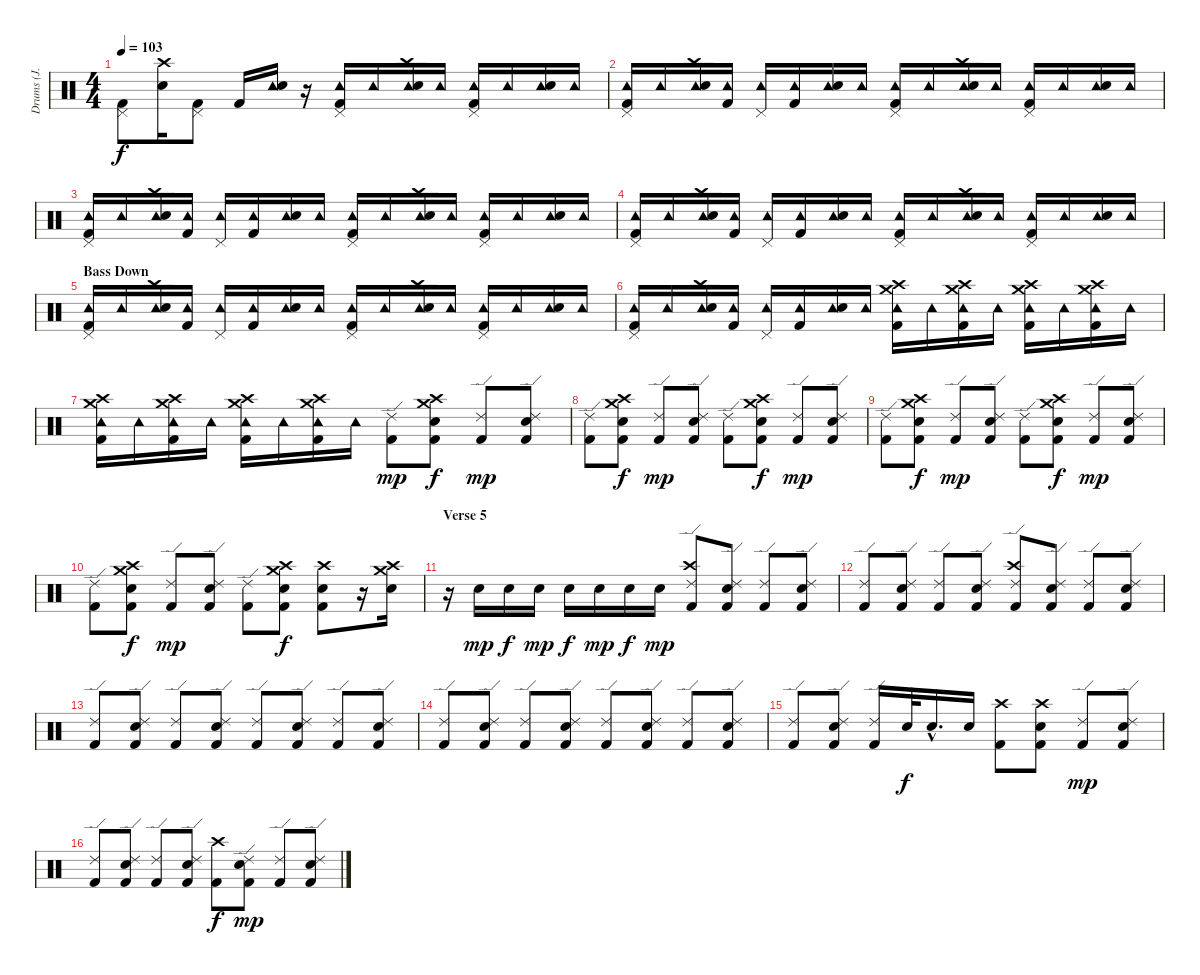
\track ("Drums (J. Cramer)" "Drums (J. ") {instrument percussion}
\staff {score}
\articulation defaults
\ts (4 4)
\tempo 103
\clef neutral
\ks c
("Pedal Hi-Hat (hit)" "Kick (hit) 2").8{dy f} ("Electric Snare (hit)" "Crash high (hit)").16 ("Pedal Hi-Hat (hit)" "Kick (hit) 2").8 "Kick (hit) 2".16 ("Tambourine (hit)" "Electric Snare (hit)").16 r.16 ("Tambourine (hit)" "Pedal Hi-Hat (hit)" "Kick (hit) 2").16 "Tambourine (hit)".16 ("Tambourine (hit)" "Electric Snare (hit)" "Crash high (hit)").16 "Tambourine (hit)".16 ("Tambourine (hit)" "Pedal Hi-Hat (hit)" "Kick (hit) 2").16 "Tambourine (hit)".16 ("Tambourine (hit)" "Electric Snare (hit)").16 "Tambourine (hit)".16 |
("Tambourine (hit)" "Pedal Hi-Hat (hit)" "Kick (hit) 2").16 "Tambourine (hit)".16 ("Tambourine (hit)" "Electric Snare (hit)" "Crash high (hit)").16 ("Tambourine (hit)" "Kick (hit) 2").16 ("Tambourine (hit)" "Pedal Hi-Hat (hit)").16 ("Tambourine (hit)" "Kick (hit) 2").16 ("Tambourine (hit)" "Electric Snare (hit)").16 "Tambourine (hit)".16 ("Tambourine (hit)" "Pedal Hi-Hat (hit)" "Kick (hit) 2").16 "Tambourine (hit)".16 ("Tambourine (hit)" "Electric Snare (hit)" "Crash high (hit)").16 "Tambourine (hit)".16 ("Tambourine (hit)" "Pedal Hi-Hat (hit)" "Kick (hit) 2").16 "Tambourine (hit)".16 ("Tambourine (hit)" "Electric Snare (hit)").16 "Tambourine (hit)".16 |
("Tambourine (hit)" "Pedal Hi-Hat (hit)" "Kick (hit) 2").16 "Tambourine (hit)".16 ("Tambourine (hit)" "Electric Snare (hit)" "Crash high (hit)").16 ("Tambourine (hit)" "Kick (hit) 2").16 ("Tambourine (hit)" "Pedal Hi-Hat (hit)").16 ("Tambourine (hit)" "Kick (hit) 2").16 ("Tambourine (hit)" "Electric Snare (hit)").16 "Tambourine (hit)".16 ("Tambourine (hit)" "Pedal Hi-Hat (hit)" "Kick (hit) 2").16 "Tambourine (hit)".16 ("Tambourine (hit)" "Electric Snare (hit)" "Crash high (hit)").16 "Tambourine (hit)".16 ("Tambourine (hit)" "Pedal Hi-Hat (hit)" "Kick (hit) 2").16 "Tambourine (hit)".16 ("Tambourine (hit)" "Electric Snare (hit)").16 "Tambourine (hit)".16 |
("Tambourine (hit)" "Pedal Hi-Hat (hit)" "Kick (hit) 2").16 "Tambourine (hit)".16 ("Tambourine (hit)" "Electric Snare (hit)" "Crash high (hit)").16 ("Tambourine (hit)" "Kick (hit) 2").16 ("Tambourine (hit)" "Pedal Hi-Hat (hit)").16 ("Tambourine (hit)" "Kick (hit) 2").16 ("Tambourine (hit)" "Electric Snare (hit)").16 "Tambourine (hit)".16 ("Tambourine (hit)" "Pedal Hi-Hat (hit)" "Kick (hit) 2").16 "Tambourine (hit)".16 ("Tambourine (hit)" "Electric Snare (hit)" "Crash high (hit)").16 "Tambourine (hit)".16 ("Tambourine (hit)" "Pedal Hi-Hat (hit)" "Kick (hit) 2").16 "Tambourine (hit)".16 ("Tambourine (hit)" "Electric Snare (hit)").16 "Tambourine (hit)".16 |
\section ("" "Bass Down")
("Tambourine (hit)" "Pedal Hi-Hat (hit)" "Kick (hit) 2").16 "Tambourine (hit)".16 ("Tambourine (hit)" "Electric Snare (hit)" "Crash high (hit)").16 ("Tambourine (hit)" "Kick (hit) 2").16 ("Tambourine (hit)" "Pedal Hi-Hat (hit)").16 ("Tambourine (hit)" "Kick (hit) 2").16 ("Tambourine (hit)" "Electric Snare (hit)").16 "Tambourine (hit)".16 ("Tambourine (hit)" "Pedal Hi-Hat (hit)" "Kick (hit) 2").16 "Tambourine (hit)".16 ("Tambourine (hit)" "Electric Snare (hit)" "Crash high (hit)").16 "Tambourine (hit)".16 ("Tambourine (hit)" "Pedal Hi-Hat (hit)" "Kick (hit) 2").16 "Tambourine (hit)".16 ("Tambourine (hit)" "Electric Snare (hit)").16 "Tambourine (hit)".16 |
("Tambourine (hit)" "Pedal Hi-Hat (hit)" "Kick (hit) 2").16 "Tambourine (hit)".16 ("Tambourine (hit)" "Electric Snare (hit)" "Crash high (hit)").16 ("Tambourine (hit)" "Kick (hit) 2").16 ("Tambourine (hit)" "Pedal Hi-Hat (hit)").16 ("Tambourine (hit)" "Kick (hit) 2").16 ("Tambourine (hit)" "Electric Snare (hit)").16 "Tambourine (hit)".16 ("Tambourine (hit)" "Crash medium (hit)" "Kick (hit) 2" "Crash high (hit)").16 "Tambourine (hit)".16 ("Tambourine (hit)" "Crash medium (hit)" "Kick (hit) 2" "Crash high (hit)").16 "Tambourine (hit)".16 ("Tambourine (hit)" "Crash medium (hit)" "Kick (hit) 2" "Crash high (hit)").16 "Tambourine (hit)".16 ("Tambourine (hit)" "Crash medium (hit)" "Kick (hit) 2" "Crash high (hit)").16 "Tambourine (hit)".16 |
("Tambourine (hit)" "Crash medium (hit)" "Kick (hit) 2" "Crash high (hit)").16 "Tambourine (hit)".16 ("Tambourine (hit)" "Crash medium (hit)" "Kick (hit) 2" "Crash high (hit)").16 "Tambourine (hit)".16 ("Tambourine (hit)" "Crash medium (hit)" "Kick (hit) 2" "Crash high (hit)").16 "Tambourine (hit)".16 ("Tambourine (hit)" "Crash medium (hit)" "Kick (hit) 2" "Crash high (hit)").16 "Tambourine (hit)".16 ("Kick (hit) 2" "Ride (edge) 2").8{dy mp} ("Crash high (hit)" "Electric Snare (hit)" "Kick (hit) 2" "Crash medium (hit)").8{dy f} ("Kick (hit) 2" "Ride (edge) 2").8{dy mp} ("Electric Snare (hit)" "Kick (hit) 2" "Ride (edge) 2").8 |
("Ride (edge) 2" "Kick (hit) 2").8 ("Crash high (hit)" "Electric Snare (hit)" "Kick (hit) 2" "Crash medium (hit)").8{dy f} ("Ride (edge) 2" "Kick (hit) 2").8{dy mp} ("Ride (edge) 2" "Electric Snare (hit)" "Kick (hit) 2").8 ("Ride (edge) 2" "Kick (hit) 2").8 ("Crash high (hit)" "Electric Snare (hit)" "Kick (hit) 2" "Crash medium (hit)").8{dy f} ("Ride (edge) 2" "Kick (hit) 2").8{dy mp} ("Ride (edge) 2" "Electric Snare (hit)" "Kick (hit) 2").8 |
("Ride (edge) 2" "Kick (hit) 2").8 ("Crash high (hit)" "Electric Snare (hit)" "Kick (hit) 2" "Crash medium (hit)").8{dy f} ("Ride (edge) 2" "Kick (hit) 2").8{dy mp} ("Ride (edge) 2" "Electric Snare (hit)" "Kick (hit) 2").8 ("Ride (edge) 2" "Kick (hit) 2").8 ("Crash high (hit)" "Electric Snare (hit)" "Kick (hit) 2" "Crash medium (hit)").8{dy f} ("Ride (edge) 2" "Kick (hit) 2").8{dy mp} ("Ride (edge) 2" "Electric Snare (hit)" "Kick (hit) 2").8 |
("Ride (edge) 2" "Kick (hit) 2").8 ("Crash high (hit)" "Electric Snare (hit)" "Kick (hit) 2" "Crash medium (hit)").8{dy f} ("Ride (edge) 2" "Kick (hit) 2").8{dy mp} ("Ride (edge) 2" "Electric Snare (hit)" "Kick (hit) 2").8 ("Ride (edge) 2" "Kick (hit) 2").8 ("Crash high (hit)" "Electric Snare (hit)" "Kick (hit) 2" "Crash medium (hit)").8{dy f} ("Crash high (hit)" "Electric Snare (hit)" "Kick (hit) 2").8 r.16 ("Crash high (hit)" "Crash medium (hit)" "Electric Snare (hit)").16 |
\section ("" "Verse 5")
r.16 "Electric Snare (hit)".16{dy mp} "Electric Snare (hit)".16{dy f} "Electric Snare (hit)".16{dy mp} "Electric Snare (hit)".16{dy f} "Electric Snare (hit)".16{dy mp} "Electric Snare (hit)".16{dy f} "Electric Snare (hit)".16{dy mp} ("Crash high (hit)" "Ride (edge) 2" "Kick (hit) 2").8 ("Ride (edge) 2" "Electric Snare (hit)" "Kick (hit) 2").8 ("Ride (edge) 2" "Kick (hit) 2").8 ("Ride (edge) 2" "Electric Snare (hit)" "Kick (hit) 2").8 |
("Ride (edge) 2" "Kick (hit) 2").8 ("Ride (edge) 2" "Electric Snare (hit)" "Kick (hit) 2").8 ("Ride (edge) 2" "Kick (hit) 2").8 ("Ride (edge) 2" "Electric Snare (hit)" "Kick (hit) 2").8 ("Crash high (hit)" "Ride (edge) 2" "Kick (hit) 2").8 ("Ride (edge) 2" "Electric Snare (hit)" "Kick (hit) 2").8 ("Ride (edge) 2" "Kick (hit) 2").8 ("Ride (edge) 2" "Electric Snare (hit)" "Kick (hit) 2").8 |
("Ride (edge) 2" "Kick (hit) 2").8 ("Ride (edge) 2" "Electric Snare (hit)" "Kick (hit) 2").8 ("Ride (edge) 2" "Kick (hit) 2").8 ("Ride (edge) 2" "Electric Snare (hit)" "Kick (hit) 2").8 ("Ride (edge) 2" "Kick (hit) 2").8 ("Ride (edge) 2" "Electric Snare (hit)" "Kick (hit) 2").8 ("Ride (edge) 2" "Kick (hit) 2").8 ("Ride (edge) 2" "Electric Snare (hit)" "Kick (hit) 2").8 |
("Ride (edge) 2" "Kick (hit) 2").8 ("Ride (edge) 2" "Electric Snare (hit)" "Kick (hit) 2").8 ("Ride (edge) 2" "Kick (hit) 2").8 ("Ride (edge) 2" "Electric Snare (hit)" "Kick (hit) 2").8 ("Ride (edge) 2" "Kick (hit) 2").8 ("Ride (edge) 2" "Electric Snare (hit)" "Kick (hit) 2").8 ("Ride (edge) 2" "Kick (hit) 2").8 ("Ride (edge) 2" "Electric Snare (hit)" "Kick (hit) 2").8 |
("Ride (edge) 2" "Kick (hit) 2").8 ("Ride (edge) 2" "Electric Snare (hit)" "Kick (hit) 2").8 ("Ride (edge) 2" "Kick (hit) 2").16 "Electric Snare (hit)".32{dy f} "Electric Snare (hit)"{hac}.16{d} "Electric Snare (hit)".16 ("Crash high (hit)" "Kick (hit) 2").8 ("Crash high (hit)" "Electric Snare (hit)" "Kick (hit) 2").8 ("Ride (edge) 2" "Kick (hit) 2").8{dy mp} ("Ride (edge) 2" "Electric Snare (hit)" "Kick (hit) 2").8 |
("Ride (edge) 2" "Kick (hit) 2").8 ("Ride (edge) 2" "Electric Snare (hit)" "Kick (hit) 2").8 ("Ride (edge) 2" "Kick (hit) 2").8 ("Ride (edge) 2" "Electric Snare (hit)" "Kick (hit) 2").8 ("Crash high (hit)" "Kick (hit) 2").8{dy f} ("Ride (edge) 2" "Electric Snare (hit)" "Kick (hit) 2").8{dy mp} ("Ride (edge) 2" "Kick (hit) 2").8 ("Ride (edge) 2" "Electric Snare (hit)" "Kick (hit) 2").8
